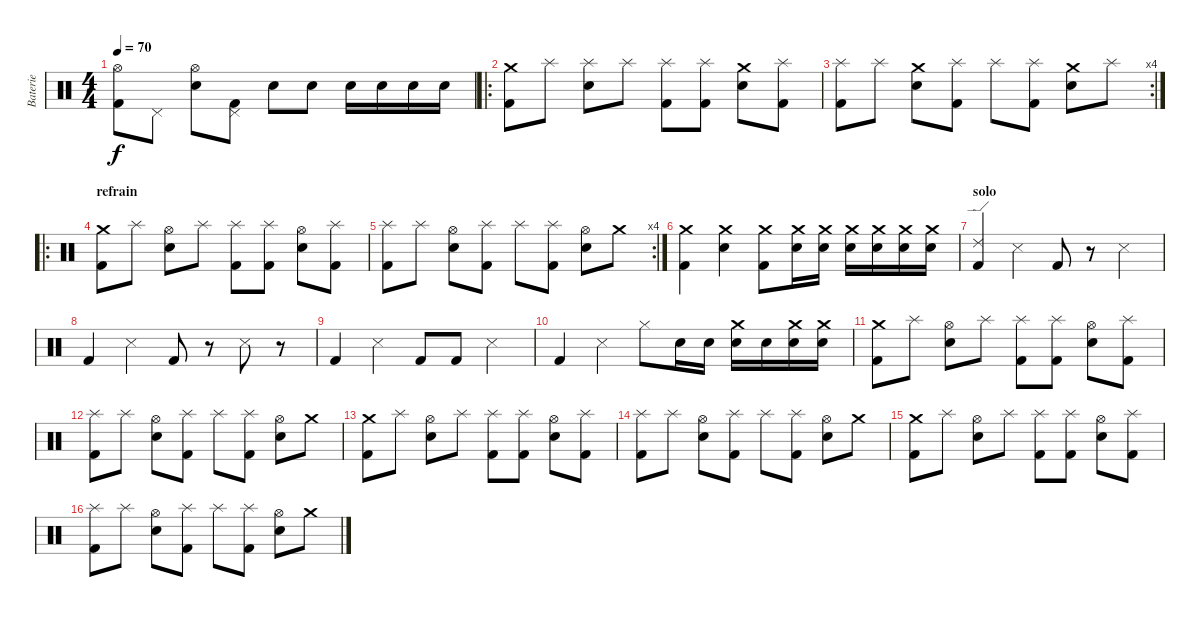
\track ("Baterie" "Baterie") {instrument percussion}
\staff {score}
\articulation defaults
\ts (4 4)
\tempo 70
\clef neutral
\ks c
("Hi-Hat (open)" "Kick (hit) 2").8{dy f} "Pedal Hi-Hat (hit)".8 ("Hi-Hat (open)" "Electric Snare (hit)").8 ("Pedal Hi-Hat (hit)" "Kick (hit) 2").8 "Electric Snare (hit)".8 "Electric Snare (hit)".8 "Electric Snare (hit)".16 "Electric Snare (hit)".16 "Electric Snare (hit)".16 "Electric Snare (hit)".16 |
\ro
("Crash medium (hit)" "Kick (hit) 2").8 "Splash (hit)".8 ("Splash (hit)" "Electric Snare (hit)").8 "Splash (hit)".8 ("Splash (hit)" "Kick (hit) 2").8 ("Splash (hit)" "Kick (hit) 2").8 ("Crash medium (hit)" "Electric Snare (hit)").8 ("Splash (hit)" "Kick (hit) 2").8 |
\rc 4
("Splash (hit)" "Kick (hit) 2").8 "Splash (hit)".8 ("Crash medium (hit)" "Electric Snare (hit)").8 ("Splash (hit)" "Kick (hit) 2").8 "Splash (hit)".8 ("Splash (hit)" "Kick (hit) 2").8 ("Crash medium (hit)" "Electric Snare (hit)").8 "Splash (hit)".8 |
\ro
\section ("" "refrain")
("Crash medium (hit)" "Kick (hit) 2").8 "Splash (hit)".8 ("Hi-Hat (open)" "Electric Snare (hit)").8 "Splash (hit)".8 ("Splash (hit)" "Kick (hit) 2").8 ("Splash (hit)" "Kick (hit) 2").8 ("Hi-Hat (open)" "Electric Snare (hit)").8 ("Splash (hit)" "Kick (hit) 2").8 |
\rc 4
("Splash (hit)" "Kick (hit) 2").8 "Splash (hit)".8 ("Hi-Hat (open)" "Electric Snare (hit)").8 ("Splash (hit)" "Kick (hit) 2").8 "Splash (hit)".8 ("Splash (hit)" "Kick (hit) 2").8 ("Hi-Hat (open)" "Electric Snare (hit)").8 "Crash medium (hit)".8 |
("Crash medium (hit)" "Kick (hit) 2").4 ("Crash medium (hit)" "Electric Snare (hit)").4 ("Crash medium (hit)" "Kick (hit) 2").8 ("Crash medium (hit)" "Electric Snare (hit)").16 ("Crash medium (hit)" "Electric Snare (hit)").16 ("Crash medium (hit)" "Electric Snare (hit)").16 ("Crash medium (hit)" "Electric Snare (hit)").16 ("Crash medium (hit)" "Electric Snare (hit)").16 ("Crash medium (hit)" "Electric Snare (hit)").16 |
\section ("" "solo")
("Ride (edge) 2" "Kick (hit) 2").4 "Snare (side stick) 3".4 "Kick (hit) 2".8 r.8 "Snare (side stick) 3".4 |
"Kick (hit) 2".4 "Snare (side stick) 3".4 "Kick (hit) 2".8 r.8 "Snare (side stick) 3".8 r.8 |
"Kick (hit) 2".4 "Snare (side stick) 3".4 "Kick (hit) 2".8 "Kick (hit) 2".8 "Snare (side stick) 3".4 |
"Kick (hit) 2".4 "Snare (side stick) 3".4 "Hi-Hat (closed)".8 "Electric Snare (hit)".16 "Electric Snare (hit)".16 ("Crash medium (hit)" "Snare (hit) 2").16 "Electric Snare (hit)".16 ("Crash medium (hit)" "Electric Snare (hit)").16 ("Crash medium (hit)" "Electric Snare (hit)").16 |
("Crash medium (hit)" "Kick (hit) 2").8 "Splash (hit)".8 ("Hi-Hat (open)" "Electric Snare (hit)").8 "Splash (hit)".8 ("Splash (hit)" "Kick (hit) 2").8 ("Splash (hit)" "Kick (hit) 2").8 ("Hi-Hat (open)" "Electric Snare (hit)").8 ("Splash (hit)" "Kick (hit) 2").8 |
("Splash (hit)" "Kick (hit) 2").8 "Splash (hit)".8 ("Hi-Hat (open)" "Electric Snare (hit)").8 ("Splash (hit)" "Kick (hit) 2").8 "Splash (hit)".8 ("Splash (hit)" "Kick (hit) 2").8 ("Hi-Hat (open)" "Electric Snare (hit)").8 "Crash medium (hit)".8 |
("Crash medium (hit)" "Kick (hit) 2").8 "Splash (hit)".8 ("Hi-Hat (open)" "Electric Snare (hit)").8 "Splash (hit)".8 ("Splash (hit)" "Kick (hit) 2").8 ("Splash (hit)" "Kick (hit) 2").8 ("Hi-Hat (open)" "Electric Snare (hit)").8 ("Splash (hit)" "Kick (hit) 2").8 |
("Splash (hit)" "Kick (hit) 2").8 "Splash (hit)".8 ("Hi-Hat (open)" "Electric Snare (hit)").8 ("Splash (hit)" "Kick (hit) 2").8 "Splash (hit)".8 ("Splash (hit)" "Kick (hit) 2").8 ("Hi-Hat (open)" "Electric Snare (hit)").8 "Crash medium (hit)".8 |
("Crash medium (hit)" "Kick (hit) 2").8 "Splash (hit)".8 ("Hi-Hat (open)" "Electric Snare (hit)").8 "Splash (hit)".8 ("Splash (hit)" "Kick (hit) 2").8 ("Splash (hit)" "Kick (hit) 2").8 ("Hi-Hat (open)" "Electric Snare (hit)").8 ("Splash (hit)" "Kick (hit) 2").8 |
("Splash (hit)" "Kick (hit) 2").8 "Splash (hit)".8 ("Hi-Hat (open)" "Electric Snare (hit)").8 ("Splash (hit)" "Kick (hit) 2").8 "Splash (hit)".8 ("Splash (hit)" "Kick (hit) 2").8 ("Hi-Hat (open)" "Electric Snare (hit)").8 "Crash medium (hit)".8
